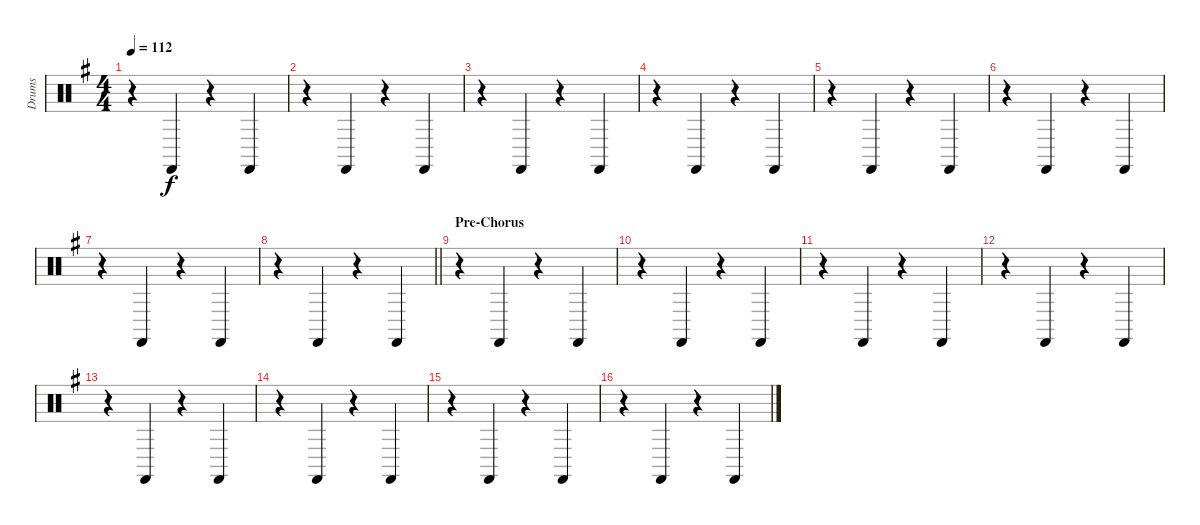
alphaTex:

\track ("Drums" "Drums") {instrument percussion}
\staff {score}
\articulation defaults
\ts (4 4)
\tempo 112
\clef neutral
\ks g
r.4{dy f} "Castanets (hit)".4 r.4 "Castanets (hit)".4 |
r.4 "Castanets (hit)".4 r.4 "Castanets (hit)".4 |
r.4 "Castanets (hit)".4 r.4 "Castanets (hit)".4 |
r.4 "Castanets (hit)".4 r.4 "Castanets (hit)".4 |
r.4 "Castanets (hit)".4 r.4 "Castanets (hit)".4 |
r.4 "Castanets (hit)".4 r.4 "Castanets (hit)".4 |
r.4 "Castanets (hit)".4 r.4 "Castanets (hit)".4 |
\barLineRight lightlight
r.4 "Castanets (hit)".4 r.4 "Castanets (hit)".4 |
\section ("" "Pre-Chorus")
r.4 "Castanets (hit)".4 r.4 "Castanets (hit)".4 |
r.4 "Castanets (hit)".4 r.4 "Castanets (hit)".4 |
r.4 "Castanets (hit)".4 r.4 "Castanets (hit)".4 |
r.4 "Castanets (hit)".4 r.4 "Castanets (hit)".4 |
r.4 "Castanets (hit)".4 r.4 "Castanets (hit)".4 |
r.4 "Castanets (hit)".4 r.4 "Castanets (hit)".4 |
r.4 "Castanets (hit)".4 r.4 "Castanets (hit)".4 |
r.4 "Castanets (hit)".4 r.4 "Castanets (hit)".4
